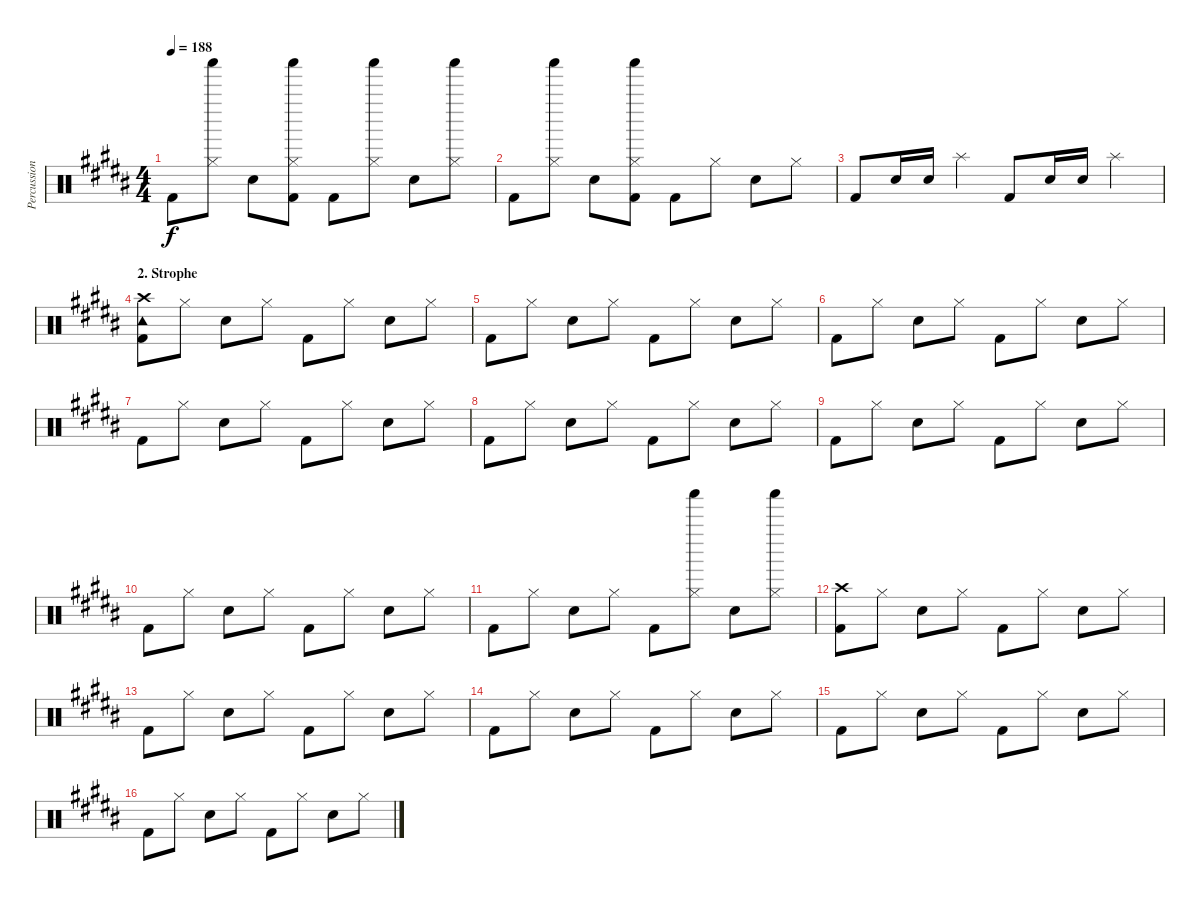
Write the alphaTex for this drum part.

\track ("Percussion" "Percussion") {instrument percussion}
\staff {score}
\articulation defaults
\ts (4 4)
\tempo 188
\clef neutral
\ks b "Kick (hit) 2".8{dy f}
("Shaker (hit)" "Hi-Hat (closed)").8 "Electric Snare (hit)".8 ("Shaker (hit)" "Hi-Hat (closed)" "Kick (hit) 2").8 "Kick (hit) 2".8 ("Shaker (hit)" "Hi-Hat (closed)").8 "Electric Snare (hit)".8 ("Shaker (hit)" "Hi-Hat (closed)").8 |
"Kick (hit) 2".8 ("Shaker (hit)" "Hi-Hat (closed)").8 "Electric Snare (hit)".8 ("Shaker (hit)" "Hi-Hat (closed)" "Kick (hit) 2").8 "Kick (hit) 2".8 "Hi-Hat (closed)".8 "Electric Snare (hit)".8 "Hi-Hat (closed)".8 |
"Kick (hit) 2".8 "Electric Snare (hit)".16 "Electric Snare (hit)".16 "Splash (hit)".4 "Kick (hit) 2".8 "Electric Snare (hit)".16 "Electric Snare (hit)".16 "Splash (hit)".4 |
\section ("" "2. Strophe")
("Tambourine (hit)" "Crash high (hit)" "Kick (hit) 2").8 "Hi-Hat (closed)".8 "Electric Snare (hit)".8 "Hi-Hat (closed)".8 "Kick (hit) 2".8 "Hi-Hat (closed)".8 "Electric Snare (hit)".8 "Hi-Hat (closed)".8 |
"Kick (hit) 2".8 "Hi-Hat (closed)".8 "Electric Snare (hit)".8 "Hi-Hat (closed)".8 "Kick (hit) 2".8 "Hi-Hat (closed)".8 "Electric Snare (hit)".8 "Hi-Hat (closed)".8 |
"Kick (hit) 2".8 "Hi-Hat (closed)".8 "Electric Snare (hit)".8 "Hi-Hat (closed)".8 "Kick (hit) 2".8 "Hi-Hat (closed)".8 "Electric Snare (hit)".8 "Hi-Hat (closed)".8 |
"Kick (hit) 2".8 "Hi-Hat (closed)".8 "Electric Snare (hit)".8 "Hi-Hat (closed)".8 "Kick (hit) 2".8 "Hi-Hat (closed)".8 "Electric Snare (hit)".8 "Hi-Hat (closed)".8 |
"Kick (hit) 2".8 "Hi-Hat (closed)".8 "Electric Snare (hit)".8 "Hi-Hat (closed)".8 "Kick (hit) 2".8 "Hi-Hat (closed)".8 "Electric Snare (hit)".8 "Hi-Hat (closed)".8 |
"Kick (hit) 2".8 "Hi-Hat (closed)".8 "Electric Snare (hit)".8 "Hi-Hat (closed)".8 "Kick (hit) 2".8 "Hi-Hat (closed)".8 "Electric Snare (hit)".8 "Hi-Hat (closed)".8 |
"Kick (hit) 2".8 "Hi-Hat (closed)".8 "Electric Snare (hit)".8 "Hi-Hat (closed)".8 "Kick (hit) 2".8 "Hi-Hat (closed)".8 "Electric Snare (hit)".8 "Hi-Hat (closed)".8 |
"Kick (hit) 2".8 "Hi-Hat (closed)".8 "Electric Snare (hit)".8 "Hi-Hat (closed)".8 "Kick (hit) 2".8 ("Shaker (hit)" "Hi-Hat (closed)").8 "Electric Snare (hit)".8 ("Shaker (hit)" "Hi-Hat (closed)").8 |
("Crash high (hit)" "Kick (hit) 2").8 "Hi-Hat (closed)".8 "Electric Snare (hit)".8 "Hi-Hat (closed)".8 "Kick (hit) 2".8 "Hi-Hat (closed)".8 "Electric Snare (hit)".8 "Hi-Hat (closed)".8 |
"Kick (hit) 2".8 "Hi-Hat (closed)".8 "Electric Snare (hit)".8 "Hi-Hat (closed)".8 "Kick (hit) 2".8 "Hi-Hat (closed)".8 "Electric Snare (hit)".8 "Hi-Hat (closed)".8 |
"Kick (hit) 2".8 "Hi-Hat (closed)".8 "Electric Snare (hit)".8 "Hi-Hat (closed)".8 "Kick (hit) 2".8 "Hi-Hat (closed)".8 "Electric Snare (hit)".8 "Hi-Hat (closed)".8 |
"Kick (hit) 2".8 "Hi-Hat (closed)".8 "Electric Snare (hit)".8 "Hi-Hat (closed)".8 "Kick (hit) 2".8 "Hi-Hat (closed)".8 "Electric Snare (hit)".8 "Hi-Hat (closed)".8 |
"Kick (hit) 2".8 "Hi-Hat (closed)".8 "Electric Snare (hit)".8 "Hi-Hat (closed)".8 "Kick (hit) 2".8 "Hi-Hat (closed)".8 "Electric Snare (hit)".8 "Hi-Hat (closed)".8
